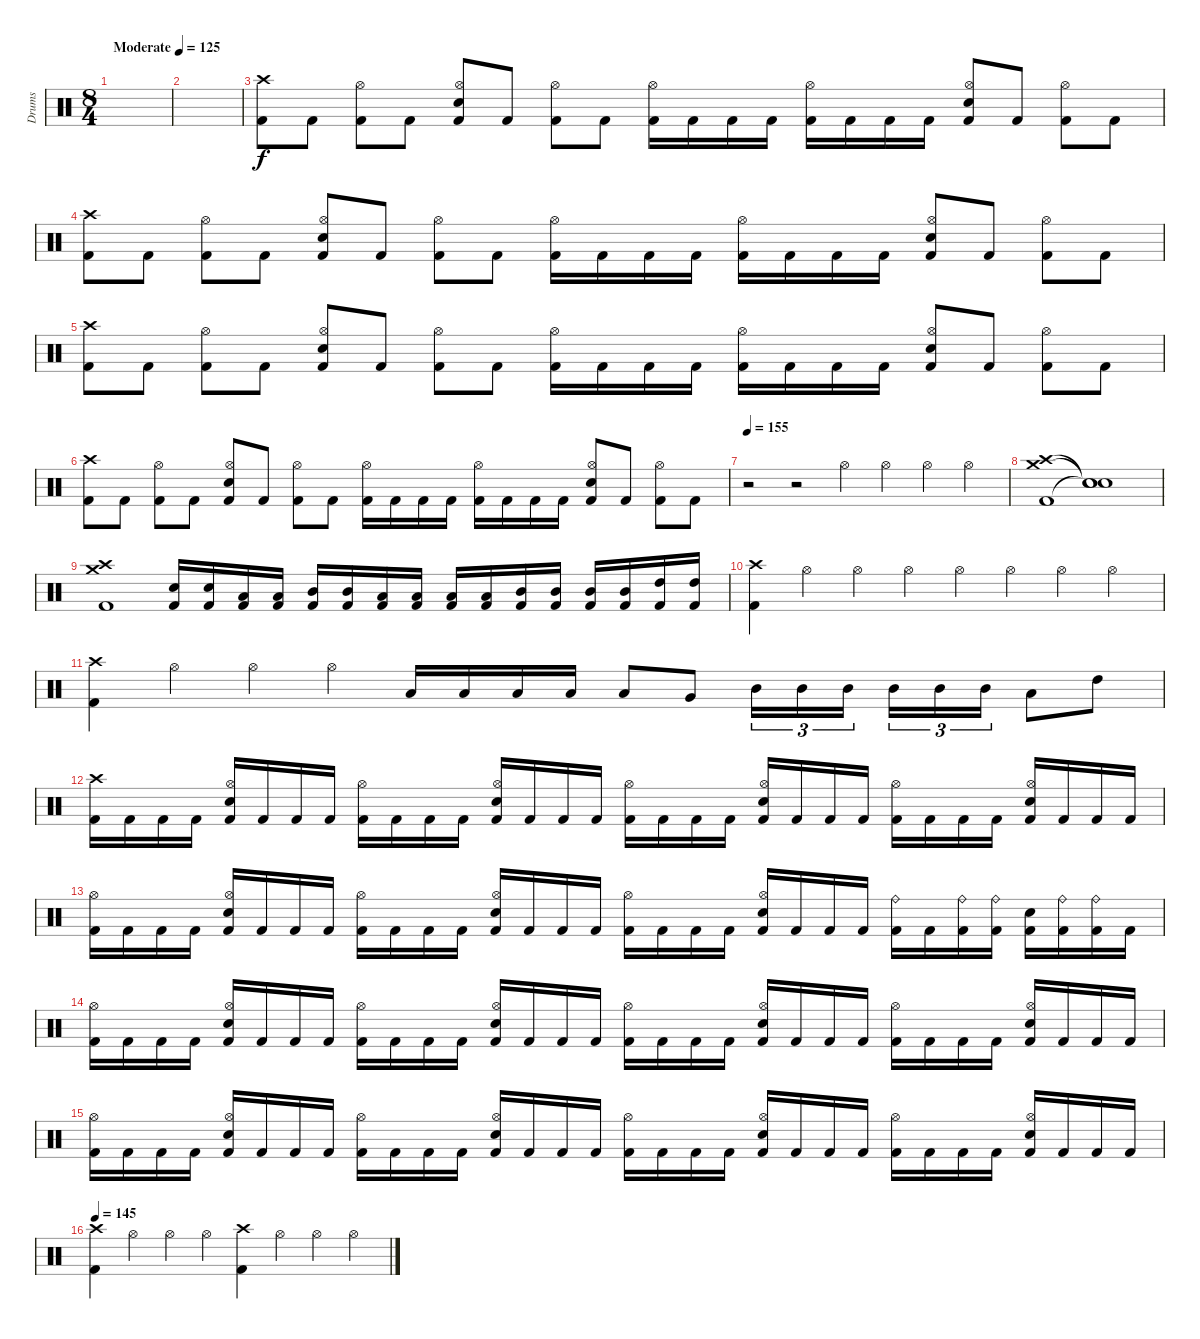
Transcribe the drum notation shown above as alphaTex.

\track ("Drums" "Drums") {instrument percussion}
\staff {score}
\articulation defaults
\ts (8 4)
\tempo (125 "Moderate")
\clef neutral
\ks c
|
|
("Crash high (hit)" "Kick (hit) 2").8 "Kick (hit) 2".8 ("Hi-Hat (open)" "Kick (hit) 2").8 "Kick (hit) 2".8 ("Hi-Hat (open)" "Electric Snare (hit)" "Kick (hit) 2").8 "Kick (hit) 2".8 ("Hi-Hat (open)" "Kick (hit) 2").8 "Kick (hit) 2".8 ("Hi-Hat (open)" "Kick (hit) 2").16 "Kick (hit) 2".16 "Kick (hit) 2".16 "Kick (hit) 2".16 ("Hi-Hat (open)" "Kick (hit) 2").16 "Kick (hit) 2".16 "Kick (hit) 2".16 "Kick (hit) 2".16 ("Hi-Hat (open)" "Electric Snare (hit)" "Kick (hit) 2").8 "Kick (hit) 2".8 ("Hi-Hat (open)" "Kick (hit) 2").8 "Kick (hit) 2".8 |
("Crash high (hit)" "Kick (hit) 2").8 "Kick (hit) 2".8 ("Hi-Hat (open)" "Kick (hit) 2").8 "Kick (hit) 2".8 ("Hi-Hat (open)" "Electric Snare (hit)" "Kick (hit) 2").8 "Kick (hit) 2".8 ("Hi-Hat (open)" "Kick (hit) 2").8 "Kick (hit) 2".8 ("Hi-Hat (open)" "Kick (hit) 2").16 "Kick (hit) 2".16 "Kick (hit) 2".16 "Kick (hit) 2".16 ("Hi-Hat (open)" "Kick (hit) 2").16 "Kick (hit) 2".16 "Kick (hit) 2".16 "Kick (hit) 2".16 ("Hi-Hat (open)" "Electric Snare (hit)" "Kick (hit) 2").8 "Kick (hit) 2".8 ("Hi-Hat (open)" "Kick (hit) 2").8 "Kick (hit) 2".8 |
("Crash high (hit)" "Kick (hit) 2").8 "Kick (hit) 2".8 ("Hi-Hat (open)" "Kick (hit) 2").8 "Kick (hit) 2".8 ("Hi-Hat (open)" "Electric Snare (hit)" "Kick (hit) 2").8 "Kick (hit) 2".8 ("Hi-Hat (open)" "Kick (hit) 2").8 "Kick (hit) 2".8 ("Hi-Hat (open)" "Kick (hit) 2").16 "Kick (hit) 2".16 "Kick (hit) 2".16 "Kick (hit) 2".16 ("Hi-Hat (open)" "Kick (hit) 2").16 "Kick (hit) 2".16 "Kick (hit) 2".16 "Kick (hit) 2".16 ("Hi-Hat (open)" "Electric Snare (hit)" "Kick (hit) 2").8 "Kick (hit) 2".8 ("Hi-Hat (open)" "Kick (hit) 2").8 "Kick (hit) 2".8 |
("Crash high (hit)" "Kick (hit) 2").8 "Kick (hit) 2".8 ("Hi-Hat (open)" "Kick (hit) 2").8 "Kick (hit) 2".8 ("Hi-Hat (open)" "Electric Snare (hit)" "Kick (hit) 2").8 "Kick (hit) 2".8 ("Hi-Hat (open)" "Kick (hit) 2").8 "Kick (hit) 2".8 ("Hi-Hat (open)" "Kick (hit) 2").16 "Kick (hit) 2".16 "Kick (hit) 2".16 "Kick (hit) 2".16 ("Hi-Hat (open)" "Kick (hit) 2").16 "Kick (hit) 2".16 "Kick (hit) 2".16 "Kick (hit) 2".16 ("Hi-Hat (open)" "Electric Snare (hit)" "Kick (hit) 2").8 "Kick (hit) 2".8 ("Hi-Hat (open)" "Kick (hit) 2").8 "Kick (hit) 2".8 |
\tempo 155
r.2 r.2 "Hi-Hat (open)".4 "Hi-Hat (open)".4 "Hi-Hat (open)".4 "Hi-Hat (open)".4 |
("Crash high (hit)" "Crash medium (hit)" "Kick (hit) 2").1 ("Snare (hit)"{t} "Snare (hit)"{t} "Snare (hit)"{t}).1 |
("Crash high (hit)" "Crash medium (hit)" "Kick (hit) 2").1 ("Electric Snare (hit)" "Kick (hit) 2").16 ("Electric Snare (hit)" "Kick (hit) 2").16 ("Low Tom (hit)" "Kick (hit) 2").16 ("Low Tom (hit)" "Kick (hit) 2").16 ("Mid Tom (hit)" "Kick (hit) 2").16 ("Mid Tom (hit)" "Kick (hit) 2").16 ("Low Tom (hit)" "Kick (hit) 2").16 ("Low Tom (hit)" "Kick (hit) 2").16 ("Low Tom (hit)" "Kick (hit) 2").16 ("Low Tom (hit)" "Kick (hit) 2").16 ("Mid Tom (hit)" "Kick (hit) 2").16 ("Mid Tom (hit)" "Kick (hit) 2").16 ("Mid Tom (hit)" "Kick (hit) 2").16 ("Mid Tom (hit)" "Kick (hit) 2").16 ("High Tom (hit)" "Kick (hit) 2").16 ("High Tom (hit)" "Kick (hit) 2").16 |
("Crash high (hit)" "Kick (hit) 2").4 "Hi-Hat (open)".4 "Hi-Hat (open)".4 "Hi-Hat (open)".4 "Hi-Hat (open)".4 "Hi-Hat (open)".4 "Hi-Hat (open)".4 "Hi-Hat (open)".4 |
("Crash high (hit)" "Kick (hit) 2").4 "Hi-Hat (open)".4 "Hi-Hat (open)".4 "Hi-Hat (open)".4 "Low Tom (hit)".16 "Low Tom (hit)".16 "Low Tom (hit)".16 "Low Tom (hit)".16 "Low Tom (hit)".8 "Very Low Tom (hit)".8 "Mid Tom (hit)".16{tu (3 2)} "Mid Tom (hit)".16{tu (3 2)} "Mid Tom (hit)".16{tu (3 2) beam splitsecondary} "Mid Tom (hit)".16{tu (3 2)} "Mid Tom (hit)".16{tu (3 2)} "Mid Tom (hit)".16{tu (3 2)} "Low Tom (hit)".8 "High Tom (hit)".8 |
("Crash high (hit)" "Kick (hit) 2").16 "Kick (hit) 2".16 "Kick (hit) 2".16 "Kick (hit) 2".16 ("Hi-Hat (open)" "Electric Snare (hit)" "Kick (hit) 2").16 "Kick (hit) 2".16 "Kick (hit) 2".16 "Kick (hit) 2".16 ("Hi-Hat (open)" "Kick (hit) 2").16 "Kick (hit) 2".16 "Kick (hit) 2".16 "Kick (hit) 2".16 ("Hi-Hat (open)" "Electric Snare (hit)" "Kick (hit) 2").16 "Kick (hit) 2".16 "Kick (hit) 2".16 "Kick (hit) 2".16 ("Hi-Hat (open)" "Kick (hit) 2").16 "Kick (hit) 2".16 "Kick (hit) 2".16 "Kick (hit) 2".16 ("Hi-Hat (open)" "Electric Snare (hit)" "Kick (hit) 2").16 "Kick (hit) 2".16 "Kick (hit) 2".16 "Kick (hit) 2".16 ("Hi-Hat (open)" "Kick (hit) 2").16 "Kick (hit) 2".16 "Kick (hit) 2".16 "Kick (hit) 2".16 ("Hi-Hat (open)" "Electric Snare (hit)" "Kick (hit) 2").16 "Kick (hit) 2".16 "Kick (hit) 2".16 "Kick (hit) 2".16 |
("Hi-Hat (open)" "Kick (hit) 2").16 "Kick (hit) 2".16 "Kick (hit) 2".16 "Kick (hit) 2".16 ("Hi-Hat (open)" "Electric Snare (hit)" "Kick (hit) 2").16 "Kick (hit) 2".16 "Kick (hit) 2".16 "Kick (hit) 2".16 ("Hi-Hat (open)" "Kick (hit) 2").16 "Kick (hit) 2".16 "Kick (hit) 2".16 "Kick (hit) 2".16 ("Hi-Hat (open)" "Electric Snare (hit)" "Kick (hit) 2").16 "Kick (hit) 2".16 "Kick (hit) 2".16 "Kick (hit) 2".16 ("Hi-Hat (open)" "Kick (hit) 2").16 "Kick (hit) 2".16 "Kick (hit) 2".16 "Kick (hit) 2".16 ("Hi-Hat (open)" "Electric Snare (hit)" "Kick (hit) 2").16 "Kick (hit) 2".16 "Kick (hit) 2".16 "Kick (hit) 2".16 ("Ride (bell)" "Kick (hit) 2").16 "Kick (hit) 2".16 ("Ride (bell)" "Kick (hit) 2").16 ("Ride (bell)" "Kick (hit) 2").16 ("Electric Snare (hit)" "Kick (hit) 2").16 ("Ride (bell)" "Kick (hit) 2").16 ("Ride (bell)" "Kick (hit) 2").16 "Kick (hit) 2".16 |
("Hi-Hat (open)" "Kick (hit) 2").16 "Kick (hit) 2".16 "Kick (hit) 2".16 "Kick (hit) 2".16 ("Hi-Hat (open)" "Electric Snare (hit)" "Kick (hit) 2").16 "Kick (hit) 2".16 "Kick (hit) 2".16 "Kick (hit) 2".16 ("Hi-Hat (open)" "Kick (hit) 2").16 "Kick (hit) 2".16 "Kick (hit) 2".16 "Kick (hit) 2".16 ("Hi-Hat (open)" "Electric Snare (hit)" "Kick (hit) 2").16 "Kick (hit) 2".16 "Kick (hit) 2".16 "Kick (hit) 2".16 ("Hi-Hat (open)" "Kick (hit) 2").16 "Kick (hit) 2".16 "Kick (hit) 2".16 "Kick (hit) 2".16 ("Hi-Hat (open)" "Electric Snare (hit)" "Kick (hit) 2").16 "Kick (hit) 2".16 "Kick (hit) 2".16 "Kick (hit) 2".16 ("Hi-Hat (open)" "Kick (hit) 2").16 "Kick (hit) 2".16 "Kick (hit) 2".16 "Kick (hit) 2".16 ("Hi-Hat (open)" "Electric Snare (hit)" "Kick (hit) 2").16 "Kick (hit) 2".16 "Kick (hit) 2".16 "Kick (hit) 2".16 |
("Hi-Hat (open)" "Kick (hit) 2").16 "Kick (hit) 2".16 "Kick (hit) 2".16 "Kick (hit) 2".16 ("Hi-Hat (open)" "Electric Snare (hit)" "Kick (hit) 2").16 "Kick (hit) 2".16 "Kick (hit) 2".16 "Kick (hit) 2".16 ("Hi-Hat (open)" "Kick (hit) 2").16 "Kick (hit) 2".16 "Kick (hit) 2".16 "Kick (hit) 2".16 ("Hi-Hat (open)" "Electric Snare (hit)" "Kick (hit) 2").16 "Kick (hit) 2".16 "Kick (hit) 2".16 "Kick (hit) 2".16 ("Hi-Hat (open)" "Kick (hit) 2").16 "Kick (hit) 2".16 "Kick (hit) 2".16 "Kick (hit) 2".16 ("Hi-Hat (open)" "Electric Snare (hit)" "Kick (hit) 2").16 "Kick (hit) 2".16 "Kick (hit) 2".16 "Kick (hit) 2".16 ("Hi-Hat (open)" "Kick (hit) 2").16 "Kick (hit) 2".16 "Kick (hit) 2".16 "Kick (hit) 2".16 ("Hi-Hat (open)" "Electric Snare (hit)" "Kick (hit) 2").16 "Kick (hit) 2".16 "Kick (hit) 2".16 "Kick (hit) 2".16 |
\tempo 145
("Crash high (hit)" "Kick (hit) 2").4 "Hi-Hat (open)".4 "Hi-Hat (open)".4 "Hi-Hat (open)".4 ("Crash high (hit)" "Kick (hit) 2").4 "Hi-Hat (open)".4 "Hi-Hat (open)".4 "Hi-Hat (open)".4
